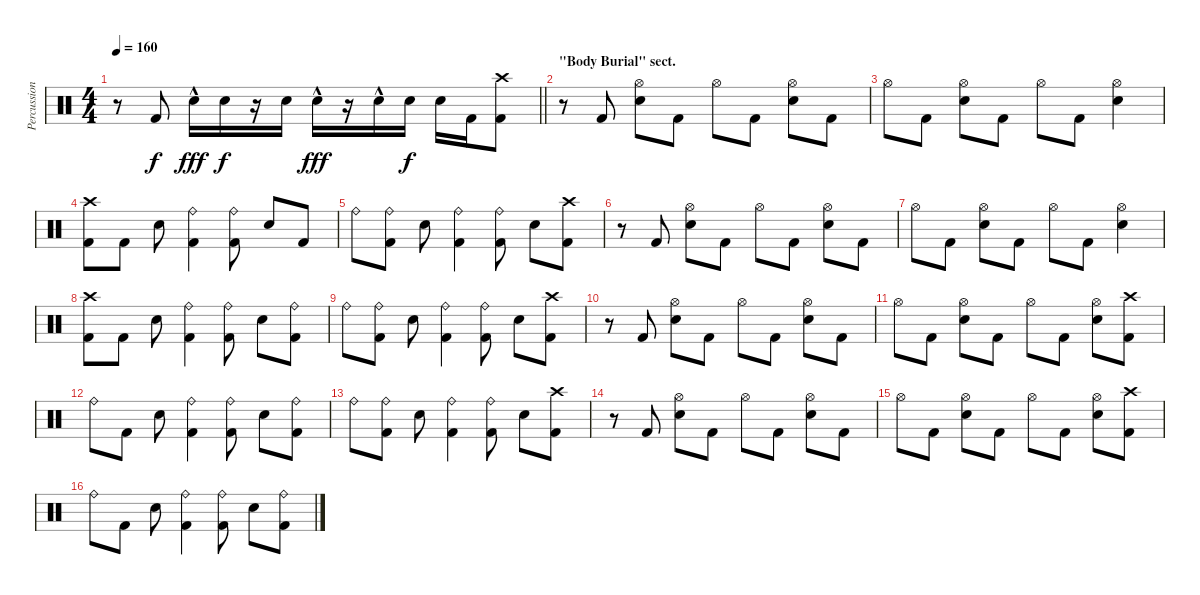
\track ("Percussion" "Percussion") {instrument percussion}
\staff {score}
\articulation defaults
\ts (4 4)
\tempo 160
\clef neutral
\barLineRight lightlight
\ks c
r.8{dy f} "Kick (hit) 2".8 "Electric Snare (hit)"{hac}.16{dy fff} "Electric Snare (hit)".16{dy f} r.16 "Electric Snare (hit)".16 "Electric Snare (hit)"{hac}.16{dy fff} r.16 "Electric Snare (hit)"{hac}.16 "Electric Snare (hit)".16{dy f} "Electric Snare (hit)".16 "Kick (hit) 2".16 ("Crash high (hit)" "Kick (hit) 2").8 |
\section ("" "\"Body Burial\" sect.")
r.8 "Kick (hit) 2".8 ("Hi-Hat (open)" "Electric Snare (hit)").8 "Kick (hit) 2".8 "Hi-Hat (open)".8 "Kick (hit) 2".8 ("Hi-Hat (open)" "Electric Snare (hit)").8 "Kick (hit) 2".8 |
"Hi-Hat (open)".8 "Kick (hit) 2".8 ("Hi-Hat (open)" "Electric Snare (hit)").8 "Kick (hit) 2".8 "Hi-Hat (open)".8 "Kick (hit) 2".8 ("Hi-Hat (open)" "Electric Snare (hit)").4 |
("Crash high (hit)" "Kick (hit) 2").8 "Kick (hit) 2".8 "Electric Snare (hit)".8 ("Ride (bell)" "Kick (hit) 2").4 ("Ride (bell)" "Kick (hit) 2").8 "Electric Snare (hit)".8 "Kick (hit) 2".8 |
"Ride (bell)".8 ("Ride (bell)" "Kick (hit) 2").8 "Electric Snare (hit)".8 ("Ride (bell)" "Kick (hit) 2").4 ("Ride (bell)" "Kick (hit) 2").8 "Electric Snare (hit)".8 ("Crash high (hit)" "Kick (hit) 2").8 |
r.8 "Kick (hit) 2".8 ("Hi-Hat (open)" "Electric Snare (hit)").8 "Kick (hit) 2".8 "Hi-Hat (open)".8 "Kick (hit) 2".8 ("Hi-Hat (open)" "Electric Snare (hit)").8 "Kick (hit) 2".8 |
"Hi-Hat (open)".8 "Kick (hit) 2".8 ("Hi-Hat (open)" "Electric Snare (hit)").8 "Kick (hit) 2".8 "Hi-Hat (open)".8 "Kick (hit) 2".8 ("Hi-Hat (open)" "Electric Snare (hit)").4 |
("Crash high (hit)" "Kick (hit) 2").8 "Kick (hit) 2".8 "Electric Snare (hit)".8 ("Ride (bell)" "Kick (hit) 2").4 ("Ride (bell)" "Kick (hit) 2").8 "Electric Snare (hit)".8 ("Ride (bell)" "Kick (hit) 2").8 |
"Ride (bell)".8 ("Ride (bell)" "Kick (hit) 2").8 "Electric Snare (hit)".8 ("Ride (bell)" "Kick (hit) 2").4 ("Ride (bell)" "Kick (hit) 2").8 "Electric Snare (hit)".8 ("Crash high (hit)" "Kick (hit) 2").8 |
r.8 "Kick (hit) 2".8 ("Hi-Hat (open)" "Electric Snare (hit)").8 "Kick (hit) 2".8 "Hi-Hat (open)".8 "Kick (hit) 2".8 ("Hi-Hat (open)" "Electric Snare (hit)").8 "Kick (hit) 2".8 |
"Hi-Hat (open)".8 "Kick (hit) 2".8 ("Hi-Hat (open)" "Electric Snare (hit)").8 "Kick (hit) 2".8 "Hi-Hat (open)".8 "Kick (hit) 2".8 ("Hi-Hat (open)" "Electric Snare (hit)").8 ("Crash high (hit)" "Kick (hit) 2").8 |
"Ride (bell)".8 "Kick (hit) 2".8 "Electric Snare (hit)".8 ("Ride (bell)" "Kick (hit) 2").4 ("Ride (bell)" "Kick (hit) 2").8 "Electric Snare (hit)".8 ("Ride (bell)" "Kick (hit) 2").8 |
"Ride (bell)".8 ("Ride (bell)" "Kick (hit) 2").8 "Electric Snare (hit)".8 ("Ride (bell)" "Kick (hit) 2").4 ("Ride (bell)" "Kick (hit) 2").8 "Electric Snare (hit)".8 ("Crash high (hit)" "Kick (hit) 2").8 |
r.8 "Kick (hit) 2".8 ("Hi-Hat (open)" "Electric Snare (hit)").8 "Kick (hit) 2".8 "Hi-Hat (open)".8 "Kick (hit) 2".8 ("Hi-Hat (open)" "Electric Snare (hit)").8 "Kick (hit) 2".8 |
"Hi-Hat (open)".8 "Kick (hit) 2".8 ("Hi-Hat (open)" "Electric Snare (hit)").8 "Kick (hit) 2".8 "Hi-Hat (open)".8 "Kick (hit) 2".8 ("Hi-Hat (open)" "Electric Snare (hit)").8 ("Crash high (hit)" "Kick (hit) 2").8 |
"Ride (bell)".8 "Kick (hit) 2".8 "Electric Snare (hit)".8 ("Ride (bell)" "Kick (hit) 2").4 ("Ride (bell)" "Kick (hit) 2").8 "Electric Snare (hit)".8 ("Ride (bell)" "Kick (hit) 2").8
